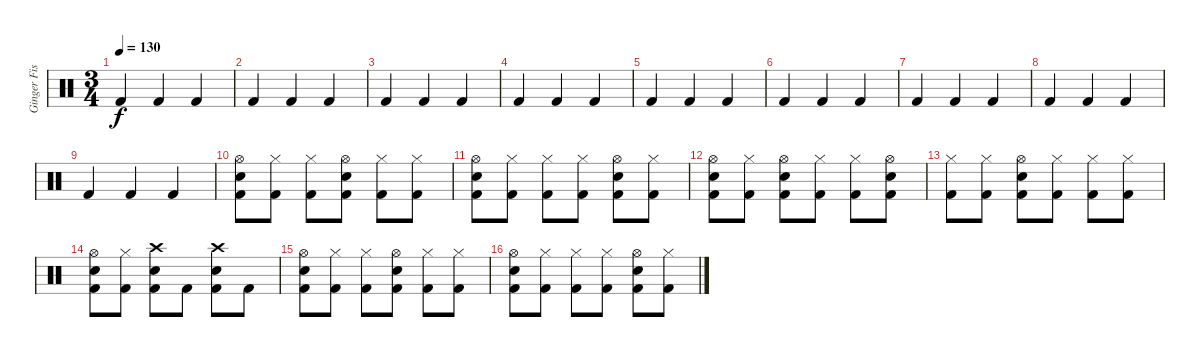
\track ("Ginger Fish" "Ginger Fis") {instrument percussion}
\staff {score}
\articulation defaults
\ts (3 4)
\tempo 130
\clef neutral
\ks c "Kick (hit) 2".4{dy f} "Kick (hit) 2".4 "Kick (hit) 2".4
|
"Kick (hit) 2".4 "Kick (hit) 2".4 "Kick (hit) 2".4 |
"Kick (hit) 2".4 "Kick (hit) 2".4 "Kick (hit) 2".4 |
"Kick (hit) 2".4 "Kick (hit) 2".4 "Kick (hit) 2".4 |
"Kick (hit) 2".4 "Kick (hit) 2".4 "Kick (hit) 2".4 |
"Kick (hit) 2".4 "Kick (hit) 2".4 "Kick (hit) 2".4 |
"Kick (hit) 2".4 "Kick (hit) 2".4 "Kick (hit) 2".4 |
"Kick (hit) 2".4 "Kick (hit) 2".4 "Kick (hit) 2".4 |
"Kick (hit) 2".4 "Kick (hit) 2".4 "Kick (hit) 2".4 |
("Hi-Hat (open)" "Snare (hit) 2" "Kick (hit) 2").8 ("Hi-Hat (closed)" "Kick (hit) 2").8 ("Hi-Hat (closed)" "Kick (hit) 2").8 ("Hi-Hat (open)" "Snare (hit) 2" "Kick (hit) 2").8 ("Hi-Hat (closed)" "Kick (hit) 2").8 ("Hi-Hat (closed)" "Kick (hit) 2").8 |
("Hi-Hat (open)" "Snare (hit) 2" "Kick (hit) 2").8 ("Hi-Hat (closed)" "Kick (hit) 2").8 ("Hi-Hat (closed)" "Kick (hit) 2").8 ("Hi-Hat (closed)" "Kick (hit) 2").8 ("Hi-Hat (open)" "Snare (hit) 2" "Kick (hit) 2").8 ("Hi-Hat (closed)" "Kick (hit) 2").8 |
("Hi-Hat (open)" "Snare (hit) 2" "Kick (hit) 2").8 ("Hi-Hat (closed)" "Kick (hit) 2").8 ("Hi-Hat (open)" "Snare (hit) 2" "Kick (hit) 2").8 ("Hi-Hat (closed)" "Kick (hit) 2").8 ("Hi-Hat (closed)" "Kick (hit) 2").8 ("Hi-Hat (open)" "Snare (hit) 2" "Kick (hit) 2").8 |
("Hi-Hat (closed)" "Kick (hit) 2").8 ("Hi-Hat (closed)" "Kick (hit) 2").8 ("Hi-Hat (open)" "Snare (hit) 2" "Kick (hit) 2").8 ("Hi-Hat (closed)" "Kick (hit) 2").8 ("Hi-Hat (closed)" "Kick (hit) 2").8 ("Hi-Hat (closed)" "Kick (hit) 2").8 |
("Hi-Hat (open)" "Snare (hit) 2" "Kick (hit) 2").8 ("Hi-Hat (closed)" "Kick (hit) 2").8 ("Crash high (hit)" "Snare (hit) 2" "Kick (hit) 2").8 "Kick (hit) 2".8 ("Crash high (hit)" "Snare (hit) 2" "Kick (hit) 2").8 "Kick (hit) 2".8 |
("Hi-Hat (open)" "Snare (hit) 2" "Kick (hit) 2").8 ("Hi-Hat (closed)" "Kick (hit) 2").8 ("Hi-Hat (closed)" "Kick (hit) 2").8 ("Hi-Hat (open)" "Snare (hit) 2" "Kick (hit) 2").8 ("Hi-Hat (closed)" "Kick (hit) 2").8 ("Hi-Hat (closed)" "Kick (hit) 2").8 |
("Hi-Hat (open)" "Snare (hit) 2" "Kick (hit) 2").8 ("Hi-Hat (closed)" "Kick (hit) 2").8 ("Hi-Hat (closed)" "Kick (hit) 2").8 ("Hi-Hat (closed)" "Kick (hit) 2").8 ("Hi-Hat (open)" "Snare (hit) 2" "Kick (hit) 2").8 ("Hi-Hat (closed)" "Kick (hit) 2").8
